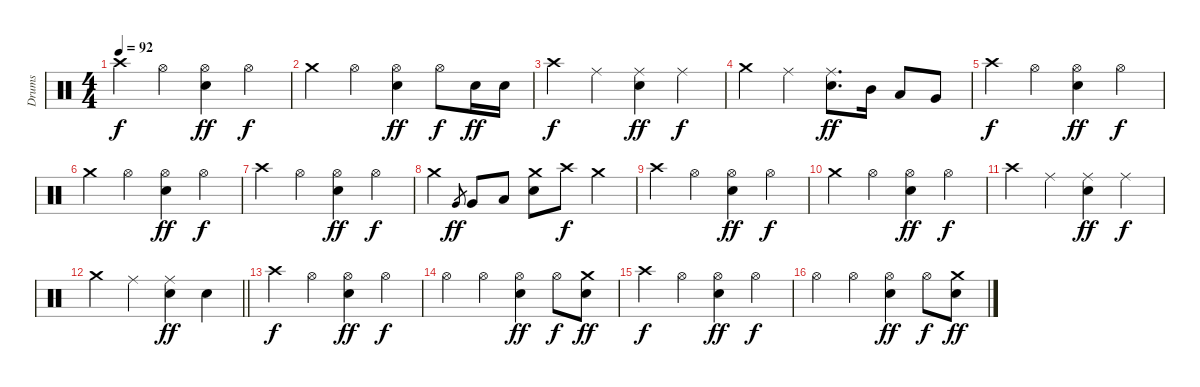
\track ("Drums" "Drums") {instrument percussion}
\staff {score}
\articulation defaults
\ts (4 4)
\tempo 92
\clef neutral
\ks c "Crash high (hit)".4{dy f} "Hi-Hat (open)".4
("Hi-Hat (open)" "Snare (hit) 2").4{dy ff} "Hi-Hat (open)".4{dy f} |
"Crash medium (hit)".4 "Hi-Hat (open)".4 ("Hi-Hat (open)" "Snare (hit) 2").4{dy ff} "Hi-Hat (open)".8{dy f} "Snare (hit) 2".16{dy ff} "Snare (hit) 2".16 |
"Crash high (hit)".4{dy f} "Ride (middle)".4 ("Ride (middle)" "Snare (hit) 2").4{dy ff} "Ride (middle)".4{dy f} |
"Crash medium (hit)".4 "Ride (middle)".4 ("Ride (middle)" "Snare (hit) 2").8{d dy ff} "Mid Tom (hit)".16 "Low Tom (hit)".8 "Very Low Tom (hit)".8 |
"Crash high (hit)".4{dy f} "Hi-Hat (open)".4 ("Hi-Hat (open)" "Snare (hit) 2").4{dy ff} "Hi-Hat (open)".4{dy f} |
"Crash medium (hit)".4 "Hi-Hat (open)".4 ("Hi-Hat (open)" "Snare (hit) 2").4{dy ff} "Hi-Hat (open)".4{dy f} |
"Crash high (hit)".4 "Hi-Hat (open)".4 ("Hi-Hat (open)" "Snare (hit) 2").4{dy ff} "Hi-Hat (open)".4{dy f} |
"Crash medium (hit)".4 "Very Low Tom (hit)".8{gr dy ff} "Very Low Tom (hit)".8 "Low Floor Tom (hit)".8 ("Crash medium (hit)" "Snare (hit) 2").8 "Crash high (hit)".8{dy f} "Crash medium (hit)".4 |
"Crash high (hit)".4 "Hi-Hat (open)".4 ("Hi-Hat (open)" "Snare (hit) 2").4{dy ff} "Hi-Hat (open)".4{dy f} |
"Crash medium (hit)".4 "Hi-Hat (open)".4 ("Hi-Hat (open)" "Snare (hit) 2").4{dy ff} "Hi-Hat (open)".4{dy f} |
"Crash high (hit)".4 "Ride (middle)".4 ("Ride (middle)" "Snare (hit) 2").4{dy ff} "Ride (middle)".4{dy f} |
\barLineRight lightlight "Crash medium (hit)".4 "Ride (middle)".4
("Ride (middle)" "Snare (hit) 2").4{dy ff} "Snare (hit) 2".4 |
\section ("" "")
"Crash high (hit)".4{dy f} "Hi-Hat (open)".4 ("Hi-Hat (open)" "Snare (hit) 2").4{dy ff} "Hi-Hat (open)".4{dy f} |
"Hi-Hat (open)".4 "Hi-Hat (open)".4 ("Hi-Hat (open)" "Snare (hit) 2").4{dy ff} "Hi-Hat (open)".8{dy f} ("Crash medium (hit)" "Snare (hit) 2").8{dy ff} |
"Crash high (hit)".4{dy f} "Hi-Hat (open)".4 ("Hi-Hat (open)" "Snare (hit) 2").4{dy ff} "Hi-Hat (open)".4{dy f} |
"Hi-Hat (open)".4 "Hi-Hat (open)".4 ("Hi-Hat (open)" "Snare (hit) 2").4{dy ff} "Hi-Hat (open)".8{dy f} ("Crash medium (hit)" "Snare (hit) 2").8{dy ff}
